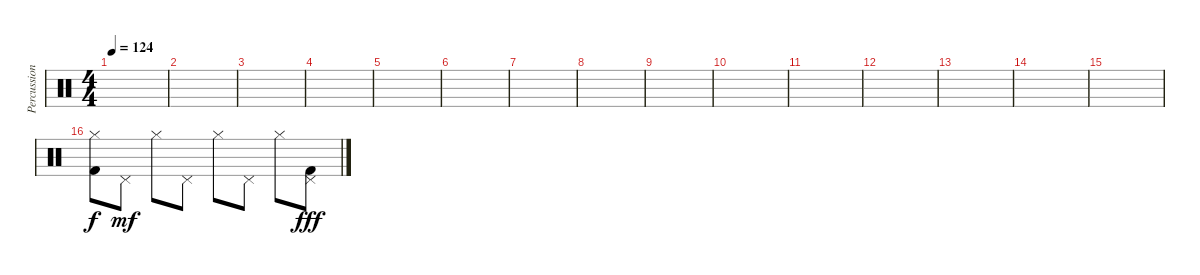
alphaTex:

\track ("Percussion" "Percussion") {instrument percussion}
\staff {score}
\articulation defaults
\ts (4 4)
\tempo 124
\clef neutral
\ks c
|
|
|
|
|
|
|
|
|
|
|
|
|
|
|
("Kick (hit) 2" "Hi-Hat (closed)").8 "Pedal Hi-Hat (hit)".8{dy mf} "Hi-Hat (closed)".8 "Pedal Hi-Hat (hit)".8 "Hi-Hat (closed)".8 "Pedal Hi-Hat (hit)".8 "Hi-Hat (closed)".8 ("Kick (hit) 2" "Pedal Hi-Hat (hit)").8{dy fff}
